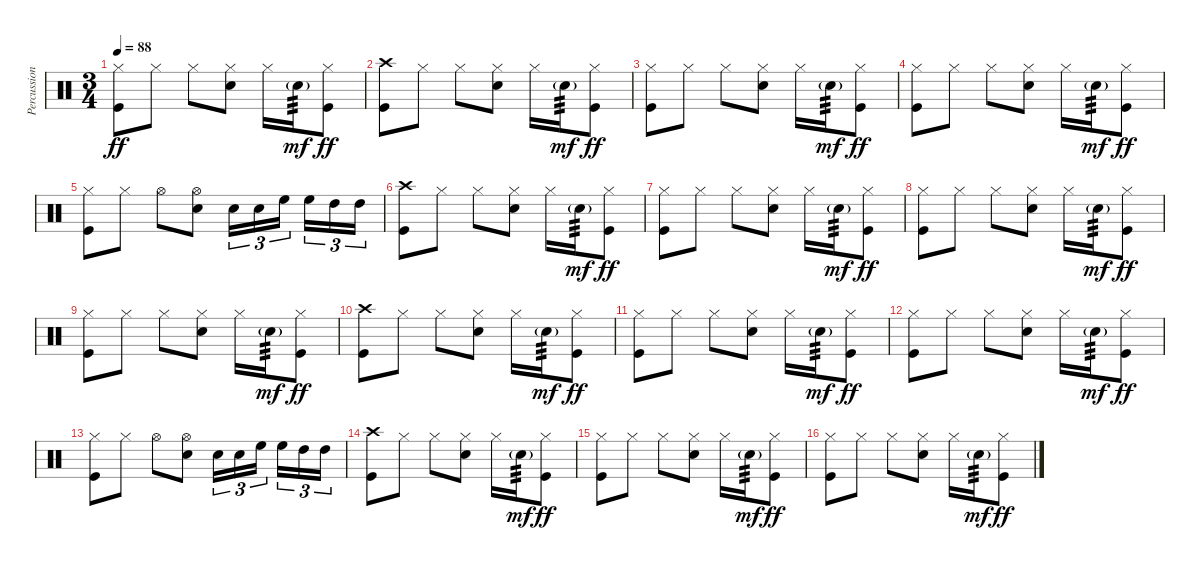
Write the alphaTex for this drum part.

\track ("Percussion" "Percussion") {instrument percussion}
\staff {score}
\articulation defaults
\ts (3 4)
\tempo 88
\clef neutral
\ks c
("Kick (hit)" "Hi-Hat (closed)").8{dy ff} "Hi-Hat (closed)".8 "Hi-Hat (closed)".8 ("Snare (hit) 2" "Hi-Hat (closed)").8 "Hi-Hat (closed)".16 "Snare (hit) 2"{g}.16{tp 3 dy mf} ("Hi-Hat (closed)" "Kick (hit)").8{dy ff} |
("Kick (hit)" "Crash high (hit)").8 "Hi-Hat (closed)".8 "Hi-Hat (closed)".8 ("Snare (hit) 2" "Hi-Hat (closed)").8 "Hi-Hat (closed)".16 "Snare (hit) 2"{g}.16{tp 3 dy mf} ("Hi-Hat (closed)" "Kick (hit)").8{dy ff} |
("Kick (hit)" "Hi-Hat (closed)").8 "Hi-Hat (closed)".8 "Hi-Hat (closed)".8 ("Snare (hit) 2" "Hi-Hat (closed)").8 "Hi-Hat (closed)".16 "Snare (hit) 2"{g}.16{tp 3 dy mf} ("Hi-Hat (closed)" "Kick (hit)").8{dy ff} |
("Kick (hit)" "Hi-Hat (closed)").8 "Hi-Hat (closed)".8 "Hi-Hat (closed)".8 ("Snare (hit) 2" "Hi-Hat (closed)").8 "Hi-Hat (closed)".16 "Snare (hit) 2"{g}.16{tp 3 dy mf} ("Hi-Hat (closed)" "Kick (hit)").8{dy ff} |
("Kick (hit)" "Hi-Hat (closed)").8 "Hi-Hat (closed)".8 "Hi-Hat (open)".8 ("Snare (hit) 2" "Hi-Hat (open)").8 "Snare (hit) 2".16{tu (3 2)} "Snare (hit) 2".16{tu (3 2)} "High Floor Tom (hit)".16{tu (3 2) beam splitsecondary} "High Floor Tom (hit)".16{tu (3 2)} "High Tom (hit)".16{tu (3 2)} "High Tom (hit)".16{tu (3 2)} |
("Kick (hit)" "Crash high (hit)").8 "Hi-Hat (closed)".8 "Hi-Hat (closed)".8 ("Snare (hit) 2" "Hi-Hat (closed)").8 "Hi-Hat (closed)".16 "Snare (hit) 2"{g}.16{tp 3 dy mf} ("Hi-Hat (closed)" "Kick (hit)").8{dy ff} |
("Kick (hit)" "Hi-Hat (closed)").8 "Hi-Hat (closed)".8 "Hi-Hat (closed)".8 ("Snare (hit) 2" "Hi-Hat (closed)").8 "Hi-Hat (closed)".16 "Snare (hit) 2"{g}.16{tp 3 dy mf} ("Hi-Hat (closed)" "Kick (hit)").8{dy ff} |
("Kick (hit)" "Hi-Hat (closed)").8 "Hi-Hat (closed)".8 "Hi-Hat (closed)".8 ("Snare (hit) 2" "Hi-Hat (closed)").8 "Hi-Hat (closed)".16 "Snare (hit) 2"{g}.16{tp 3 dy mf} ("Hi-Hat (closed)" "Kick (hit)").8{dy ff} |
("Kick (hit)" "Hi-Hat (closed)").8 "Hi-Hat (closed)".8 "Hi-Hat (closed)".8 ("Snare (hit) 2" "Hi-Hat (closed)").8 "Hi-Hat (closed)".16 "Snare (hit) 2"{g}.16{tp 3 dy mf} ("Hi-Hat (closed)" "Kick (hit)").8{dy ff} |
("Kick (hit)" "Crash high (hit)").8 "Hi-Hat (closed)".8 "Hi-Hat (closed)".8 ("Snare (hit) 2" "Hi-Hat (closed)").8 "Hi-Hat (closed)".16 "Snare (hit) 2"{g}.16{tp 3 dy mf} ("Hi-Hat (closed)" "Kick (hit)").8{dy ff} |
("Kick (hit)" "Hi-Hat (closed)").8 "Hi-Hat (closed)".8 "Hi-Hat (closed)".8 ("Snare (hit) 2" "Hi-Hat (closed)").8 "Hi-Hat (closed)".16 "Snare (hit) 2"{g}.16{tp 3 dy mf} ("Hi-Hat (closed)" "Kick (hit)").8{dy ff} |
("Kick (hit)" "Hi-Hat (closed)").8 "Hi-Hat (closed)".8 "Hi-Hat (closed)".8 ("Snare (hit) 2" "Hi-Hat (closed)").8 "Hi-Hat (closed)".16 "Snare (hit) 2"{g}.16{tp 3 dy mf} ("Hi-Hat (closed)" "Kick (hit)").8{dy ff} |
("Kick (hit)" "Hi-Hat (closed)").8 "Hi-Hat (closed)".8 "Hi-Hat (open)".8 ("Snare (hit) 2" "Hi-Hat (open)").8 "Snare (hit) 2".16{tu (3 2)} "Snare (hit) 2".16{tu (3 2)} "High Floor Tom (hit)".16{tu (3 2) beam splitsecondary} "High Floor Tom (hit)".16{tu (3 2)} "High Tom (hit)".16{tu (3 2)} "High Tom (hit)".16{tu (3 2)} |
("Kick (hit)" "Crash high (hit)").8 "Hi-Hat (closed)".8 "Hi-Hat (closed)".8 ("Snare (hit) 2" "Hi-Hat (closed)").8 "Hi-Hat (closed)".16 "Snare (hit) 2"{g}.16{tp 3 dy mf} ("Hi-Hat (closed)" "Kick (hit)").8{dy ff} |
("Kick (hit)" "Hi-Hat (closed)").8 "Hi-Hat (closed)".8 "Hi-Hat (closed)".8 ("Snare (hit) 2" "Hi-Hat (closed)").8 "Hi-Hat (closed)".16 "Snare (hit) 2"{g}.16{tp 3 dy mf} ("Hi-Hat (closed)" "Kick (hit)").8{dy ff} |
("Kick (hit)" "Hi-Hat (closed)").8 "Hi-Hat (closed)".8 "Hi-Hat (closed)".8 ("Snare (hit) 2" "Hi-Hat (closed)").8 "Hi-Hat (closed)".16 "Snare (hit) 2"{g}.16{tp 3 dy mf} ("Hi-Hat (closed)" "Kick (hit)").8{dy ff}
